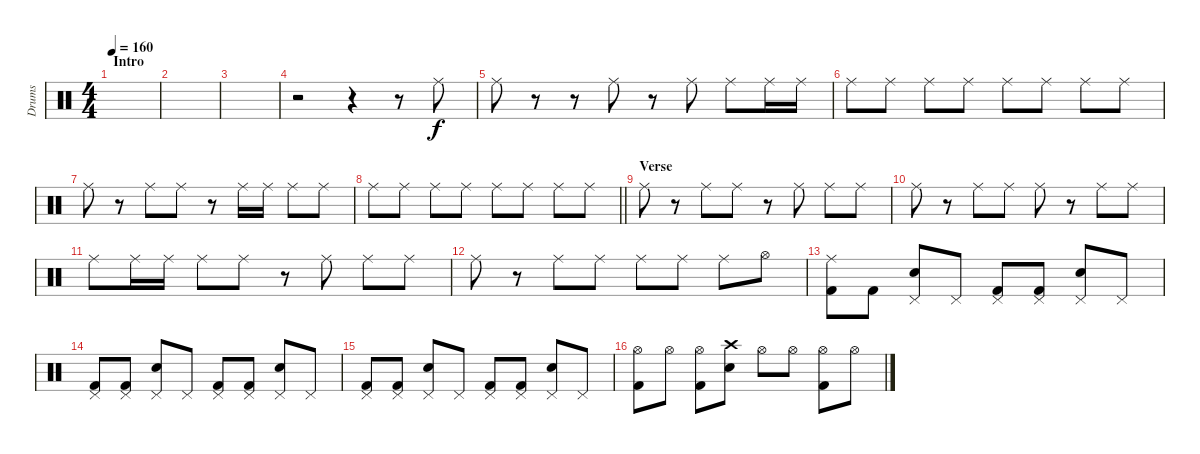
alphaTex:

\track ("Drums" "Drums") {instrument percussion}
\staff {score}
\articulation defaults
\ts (4 4)
\section ("" "Intro")
\tempo 160
\clef neutral
\ks c
|
|
|
r.2 r.4 r.8 "Ride (middle)".8 |
"Ride (middle)".8 r.8 r.8 "Ride (middle)".8 r.8 "Ride (middle)".8 "Ride (middle)".8 "Ride (middle)".16 "Ride (middle)".16 |
"Ride (middle)".8 "Ride (middle)".8 "Ride (middle)".8 "Ride (middle)".8 "Ride (middle)".8 "Ride (middle)".8 "Ride (middle)".8 "Ride (middle)".8 |
"Ride (middle)".8 r.8 "Ride (middle)".8 "Ride (middle)".8 r.8 "Ride (middle)".16 "Ride (middle)".16 "Ride (middle)".8 "Ride (middle)".8 |
\barLineRight lightlight "Ride (middle)".8 "Ride (middle)".8 "Ride (middle)".8 "Ride (middle)".8 "Ride (middle)".8 "Ride (middle)".8 "Ride (middle)".8 "Ride (middle)".8
|
\section ("" "Verse")
"Ride (middle)".8 r.8 "Ride (middle)".8 "Ride (middle)".8 r.8 "Ride (middle)".8 "Ride (middle)".8 "Ride (middle)".8 |
"Ride (middle)".8 r.8 "Ride (middle)".8 "Ride (middle)".8 "Ride (middle)".8 r.8 "Ride (middle)".8 "Ride (middle)".8 |
"Ride (middle)".8 "Ride (middle)".16 "Ride (middle)".16 "Ride (middle)".8 "Ride (middle)".8 r.8 "Ride (middle)".8 "Ride (middle)".8 "Ride (middle)".8 |
"Ride (middle)".8 r.8 "Ride (middle)".8 "Ride (middle)".8 "Ride (middle)".8 "Ride (middle)".8 "Ride (middle)".8 "Hi-Hat (open)".8 |
("Ride (middle)" "Kick (hit) 2").8 "Kick (hit) 2".8 ("Pedal Hi-Hat (hit)" "Snare (hit) 2").8 "Pedal Hi-Hat (hit)".8 ("Pedal Hi-Hat (hit)" "Kick (hit) 2").8 ("Pedal Hi-Hat (hit)" "Kick (hit) 2").8 ("Pedal Hi-Hat (hit)" "Snare (hit) 2").8 "Pedal Hi-Hat (hit)".8 |
("Pedal Hi-Hat (hit)" "Kick (hit) 2").8 ("Pedal Hi-Hat (hit)" "Kick (hit) 2").8 ("Pedal Hi-Hat (hit)" "Snare (hit) 2").8 "Pedal Hi-Hat (hit)".8 ("Pedal Hi-Hat (hit)" "Kick (hit) 2").8 ("Pedal Hi-Hat (hit)" "Kick (hit) 2").8 ("Pedal Hi-Hat (hit)" "Snare (hit) 2").8 "Pedal Hi-Hat (hit)".8 |
("Pedal Hi-Hat (hit)" "Kick (hit) 2").8 ("Pedal Hi-Hat (hit)" "Kick (hit) 2").8 ("Pedal Hi-Hat (hit)" "Snare (hit) 2").8 "Pedal Hi-Hat (hit)".8 ("Pedal Hi-Hat (hit)" "Kick (hit) 2").8 ("Pedal Hi-Hat (hit)" "Kick (hit) 2").8 ("Pedal Hi-Hat (hit)" "Snare (hit) 2").8 "Pedal Hi-Hat (hit)".8 |
("Hi-Hat (open)" "Kick (hit) 2").8 "Hi-Hat (open)".8 ("Hi-Hat (open)" "Kick (hit) 2").8 ("Crash high (hit)" "Snare (hit) 2").8 "Hi-Hat (open)".8 "Hi-Hat (open)".8 ("Hi-Hat (open)" "Kick (hit) 2").8 "Hi-Hat (open)".8
